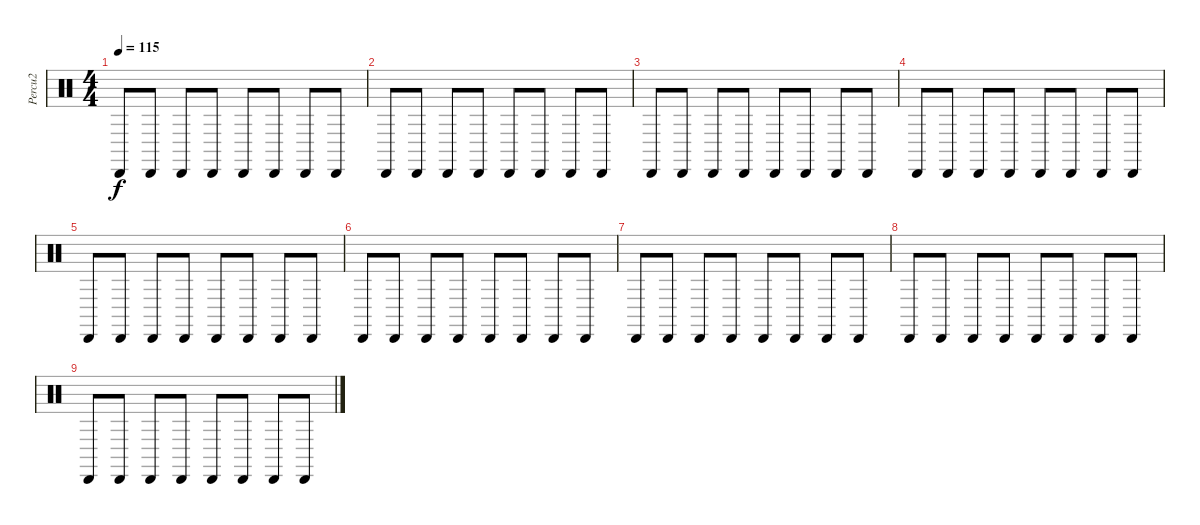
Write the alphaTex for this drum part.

\track ("Percu2" "Percu2") {instrument percussion}
\staff {score}
\articulation defaults
\ts (4 4)
\tempo 115
\clef neutral
\ks c "Cabasa (hit)".8{dy f} "Cabasa (hit)".8 "Cabasa (hit)".8 "Cabasa (hit)".8 "Cabasa (hit)".8 "Cabasa (hit)".8 "Cabasa (hit)".8 "Cabasa (hit)".8
|
"Cabasa (hit)".8 "Cabasa (hit)".8 "Cabasa (hit)".8 "Cabasa (hit)".8 "Cabasa (hit)".8 "Cabasa (hit)".8 "Cabasa (hit)".8 "Cabasa (hit)".8 |
"Cabasa (hit)".8 "Cabasa (hit)".8 "Cabasa (hit)".8 "Cabasa (hit)".8 "Cabasa (hit)".8 "Cabasa (hit)".8 "Cabasa (hit)".8 "Cabasa (hit)".8 |
"Cabasa (hit)".8 "Cabasa (hit)".8 "Cabasa (hit)".8 "Cabasa (hit)".8 "Cabasa (hit)".8 "Cabasa (hit)".8 "Cabasa (hit)".8 "Cabasa (hit)".8 |
"Cabasa (hit)".8 "Cabasa (hit)".8 "Cabasa (hit)".8 "Cabasa (hit)".8 "Cabasa (hit)".8 "Cabasa (hit)".8 "Cabasa (hit)".8 "Cabasa (hit)".8 |
"Cabasa (hit)".8 "Cabasa (hit)".8 "Cabasa (hit)".8 "Cabasa (hit)".8 "Cabasa (hit)".8 "Cabasa (hit)".8 "Cabasa (hit)".8 "Cabasa (hit)".8 |
"Cabasa (hit)".8 "Cabasa (hit)".8 "Cabasa (hit)".8 "Cabasa (hit)".8 "Cabasa (hit)".8 "Cabasa (hit)".8 "Cabasa (hit)".8 "Cabasa (hit)".8 |
"Cabasa (hit)".8 "Cabasa (hit)".8 "Cabasa (hit)".8 "Cabasa (hit)".8 "Cabasa (hit)".8 "Cabasa (hit)".8 "Cabasa (hit)".8 "Cabasa (hit)".8 |
"Cabasa (hit)".8 "Cabasa (hit)".8 "Cabasa (hit)".8 "Cabasa (hit)".8 "Cabasa (hit)".8 "Cabasa (hit)".8 "Cabasa (hit)".8 "Cabasa (hit)".8
